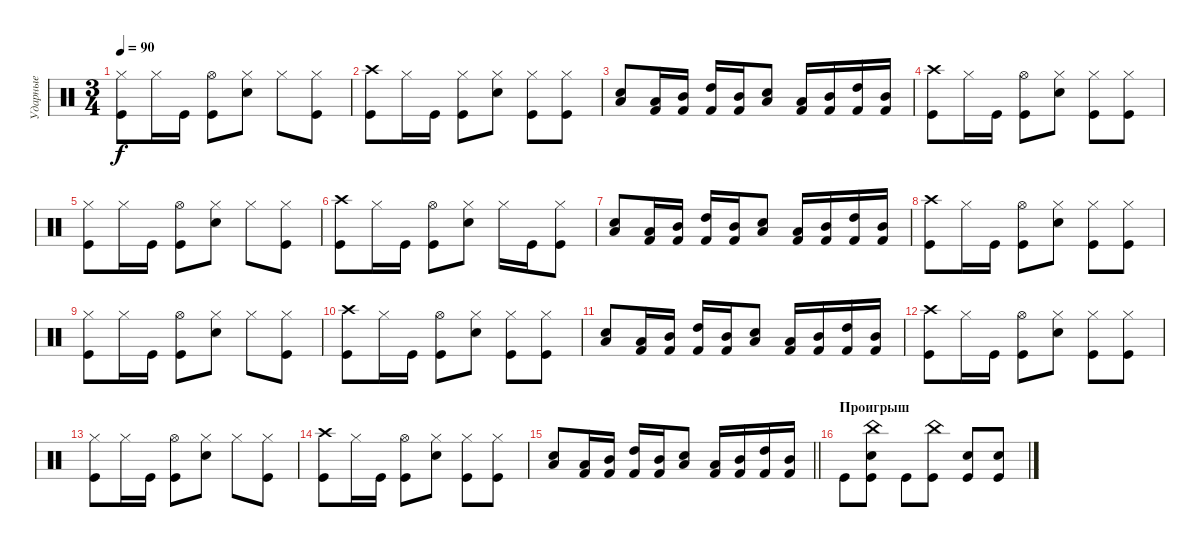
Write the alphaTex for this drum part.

\track ("Ударные" "Ударные") {instrument percussion}
\staff {score}
\articulation defaults
\ts (3 4)
\tempo 90
\clef neutral
\ks c
("Hi-Hat (closed)" "Kick (hit)").8{dy f} "Hi-Hat (closed)".16 "Kick (hit)".16 ("Hi-Hat (open)" "Kick (hit)").8 ("Hi-Hat (closed)" "Electric Snare (hit)").8 "Hi-Hat (closed)".8 ("Hi-Hat (closed)" "Kick (hit)").8 |
("Crash high (hit)" "Kick (hit)").8 "Hi-Hat (closed)".16 "Kick (hit)".16 ("Hi-Hat (closed)" "Kick (hit)").8 ("Hi-Hat (closed)" "Electric Snare (hit)").8 ("Hi-Hat (closed)" "Kick (hit)").8 ("Hi-Hat (closed)" "Kick (hit)").8 |
("Low Floor Tom (hit)" "Electric Snare (hit)").8 ("Low Tom (hit)" "Kick (hit) 2").16 ("Mid Tom (hit)" "Kick (hit) 2").16 ("High Tom (hit)" "Kick (hit) 2").16 ("Mid Tom (hit)" "Kick (hit) 2").16 ("Low Floor Tom (hit)" "Electric Snare (hit)").8 ("Low Tom (hit)" "Kick (hit) 2").16 ("Mid Tom (hit)" "Kick (hit) 2").16 ("High Tom (hit)" "Kick (hit) 2").16 ("Mid Tom (hit)" "Kick (hit) 2").16 |
("Crash high (hit)" "Kick (hit)").8 "Hi-Hat (closed)".16 "Kick (hit)".16 ("Hi-Hat (open)" "Kick (hit)").8 ("Hi-Hat (closed)" "Electric Snare (hit)").8 ("Hi-Hat (closed)" "Kick (hit)").8 ("Hi-Hat (closed)" "Kick (hit)").8 |
("Hi-Hat (closed)" "Kick (hit)").8 "Hi-Hat (closed)".16 "Kick (hit)".16 ("Hi-Hat (open)" "Kick (hit)").8 ("Hi-Hat (closed)" "Electric Snare (hit)").8 "Hi-Hat (closed)".8 ("Hi-Hat (closed)" "Kick (hit)").8 |
("Crash high (hit)" "Kick (hit)").8 "Hi-Hat (closed)".16 "Kick (hit)".16 ("Hi-Hat (open)" "Kick (hit)").8 ("Hi-Hat (closed)" "Electric Snare (hit)").8 "Hi-Hat (closed)".16 "Kick (hit)".16 ("Hi-Hat (closed)" "Kick (hit)").8 |
("Low Floor Tom (hit)" "Electric Snare (hit)").8 ("Low Tom (hit)" "Kick (hit) 2").16 ("Mid Tom (hit)" "Kick (hit) 2").16 ("High Tom (hit)" "Kick (hit) 2").16 ("Mid Tom (hit)" "Kick (hit) 2").16 ("Low Floor Tom (hit)" "Electric Snare (hit)").8 ("Low Tom (hit)" "Kick (hit) 2").16 ("Mid Tom (hit)" "Kick (hit) 2").16 ("High Tom (hit)" "Kick (hit) 2").16 ("Mid Tom (hit)" "Kick (hit) 2").16 |
("Crash high (hit)" "Kick (hit)").8 "Hi-Hat (closed)".16 "Kick (hit)".16 ("Hi-Hat (open)" "Kick (hit)").8 ("Hi-Hat (closed)" "Electric Snare (hit)").8 ("Hi-Hat (closed)" "Kick (hit)").8 ("Hi-Hat (closed)" "Kick (hit)").8 |
("Hi-Hat (closed)" "Kick (hit)").8 "Hi-Hat (closed)".16 "Kick (hit)".16 ("Hi-Hat (open)" "Kick (hit)").8 ("Hi-Hat (closed)" "Electric Snare (hit)").8 "Hi-Hat (closed)".8 ("Hi-Hat (closed)" "Kick (hit)").8 |
("Crash high (hit)" "Kick (hit)").8 "Hi-Hat (closed)".16 "Kick (hit)".16 ("Hi-Hat (open)" "Kick (hit)").8 ("Hi-Hat (closed)" "Electric Snare (hit)").8 ("Hi-Hat (closed)" "Kick (hit)").8 ("Hi-Hat (closed)" "Kick (hit)").8 |
("Low Floor Tom (hit)" "Electric Snare (hit)").8 ("Low Tom (hit)" "Kick (hit) 2").16 ("Mid Tom (hit)" "Kick (hit) 2").16 ("High Tom (hit)" "Kick (hit) 2").16 ("Mid Tom (hit)" "Kick (hit) 2").16 ("Low Floor Tom (hit)" "Electric Snare (hit)").8 ("Low Tom (hit)" "Kick (hit) 2").16 ("Mid Tom (hit)" "Kick (hit) 2").16 ("High Tom (hit)" "Kick (hit) 2").16 ("Mid Tom (hit)" "Kick (hit) 2").16 |
("Crash high (hit)" "Kick (hit)").8 "Hi-Hat (closed)".16 "Kick (hit)".16 ("Hi-Hat (open)" "Kick (hit)").8 ("Hi-Hat (closed)" "Electric Snare (hit)").8 ("Hi-Hat (closed)" "Kick (hit)").8 ("Hi-Hat (closed)" "Kick (hit)").8 |
("Hi-Hat (closed)" "Kick (hit)").8 "Hi-Hat (closed)".16 "Kick (hit)".16 ("Hi-Hat (open)" "Kick (hit)").8 ("Hi-Hat (closed)" "Electric Snare (hit)").8 "Hi-Hat (closed)".8 ("Hi-Hat (closed)" "Kick (hit)").8 |
("Crash high (hit)" "Kick (hit)").8 "Hi-Hat (closed)".16 "Kick (hit)".16 ("Hi-Hat (open)" "Kick (hit)").8 ("Hi-Hat (closed)" "Electric Snare (hit)").8 ("Hi-Hat (closed)" "Kick (hit)").8 ("Hi-Hat (closed)" "Kick (hit)").8 |
\barLineRight lightlight
("Low Floor Tom (hit)" "Electric Snare (hit)").8 ("Low Tom (hit)" "Kick (hit) 2").16 ("Mid Tom (hit)" "Kick (hit) 2").16 ("High Tom (hit)" "Kick (hit) 2").16 ("Mid Tom (hit)" "Kick (hit) 2").16 ("Low Floor Tom (hit)" "Electric Snare (hit)").8 ("Low Tom (hit)" "Kick (hit) 2").16 ("Mid Tom (hit)" "Kick (hit) 2").16 ("High Tom (hit)" "Kick (hit) 2").16 ("Mid Tom (hit)" "Kick (hit) 2").16 |
\section ("" "Проигрыш")
"Kick (hit)".8 ("China (hit)" "Electric Snare (hit)" "Kick (hit)").8 "Kick (hit)".8 ("China (hit)" "Kick (hit)").8 ("Electric Snare (hit)" "Kick (hit)").8 ("Electric Snare (hit)" "Kick (hit)").8
